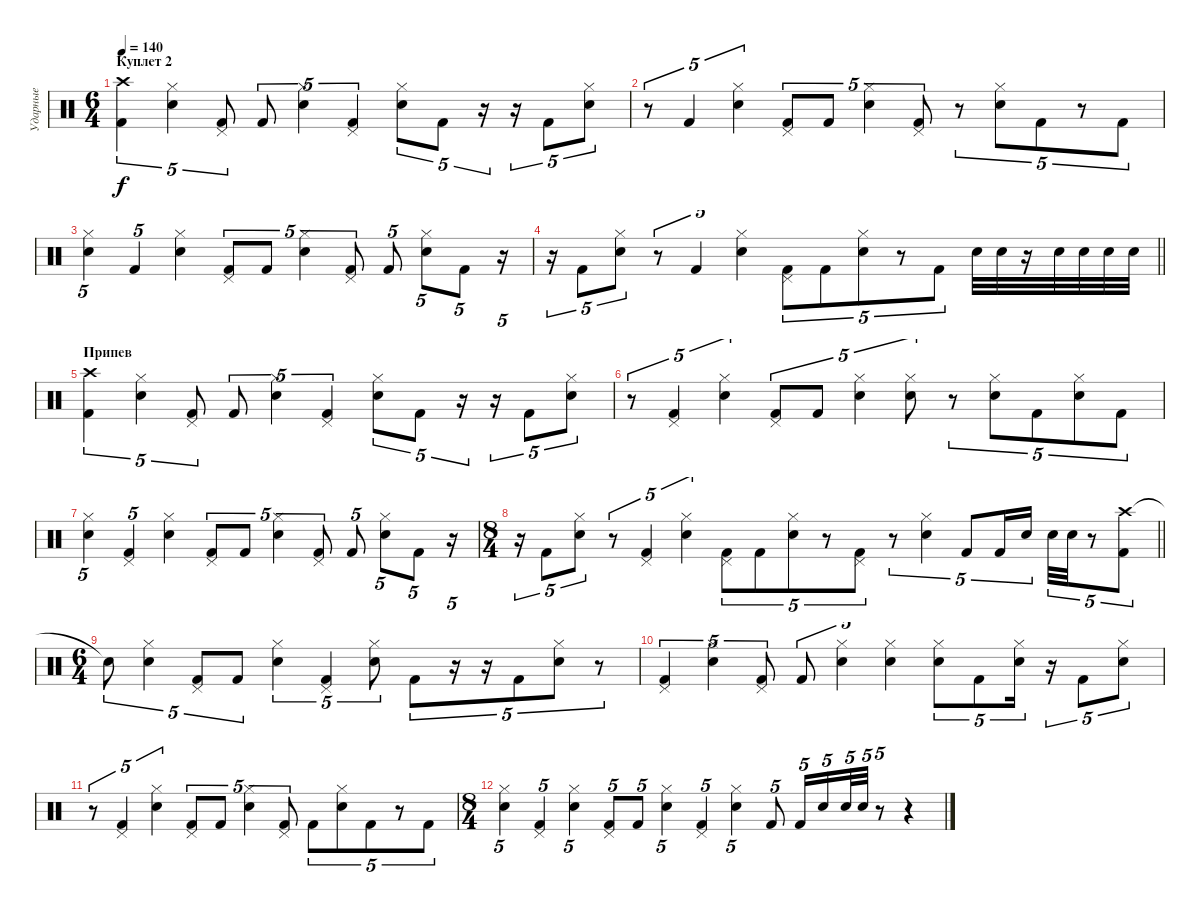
\track ("Ударные" "Ударные") {instrument percussion}
\staff {score}
\articulation defaults
\ts (6 4)
\section ("" "Куплет 2")
\tempo 140
\clef neutral
\ks c
("Crash high (hit)" "Kick (hit) 2").4{tu (5 4) dy f} ("Hi-Hat (closed)" "Snare (hit) 2").4{tu (5 4)} ("Pedal Hi-Hat (hit)" "Kick (hit) 2").8{tu (5 4)} "Kick (hit) 2".8{tu (5 4)} ("Hi-Hat (closed)" "Snare (hit) 2").4{tu (5 4)} ("Pedal Hi-Hat (hit)" "Kick (hit) 2").4{tu (5 4)} ("Hi-Hat (closed)" "Snare (hit) 2").8{tu (5 4)} "Kick (hit) 2".8{tu (5 4)} r.16{tu (5 4)} r.16{tu (5 4)} "Kick (hit) 2".8{tu (5 4)} ("Hi-Hat (closed)" "Snare (hit) 2").8{tu (5 4)} |
r.8{tu (5 4)} "Kick (hit) 2".4{tu (5 4)} ("Hi-Hat (closed)" "Snare (hit) 2").4{tu (5 4)} ("Pedal Hi-Hat (hit)" "Kick (hit) 2").8{tu (5 4)} "Kick (hit) 2".8{tu (5 4)} ("Hi-Hat (closed)" "Snare (hit) 2").4{tu (5 4)} ("Pedal Hi-Hat (hit)" "Kick (hit) 2").8{tu (5 4)} r.8{tu (5 4)} ("Hi-Hat (closed)" "Snare (hit) 2").8{tu (5 4)} "Kick (hit) 2".8{tu (5 4)} r.8{tu (5 4)} "Kick (hit) 2".8{tu (5 4)} |
("Hi-Hat (closed)" "Snare (hit) 2").4{tu (5 4)} "Kick (hit) 2".4{tu (5 4)} ("Hi-Hat (closed)" "Snare (hit) 2").4 ("Pedal Hi-Hat (hit)" "Kick (hit) 2").8{tu (5 4)} "Kick (hit) 2".8{tu (5 4)} ("Hi-Hat (closed)" "Snare (hit) 2").4{tu (5 4)} ("Pedal Hi-Hat (hit)" "Kick (hit) 2").8{tu (5 4)} "Kick (hit) 2".8{tu (5 4)} ("Hi-Hat (closed)" "Snare (hit) 2").8{tu (5 4)} "Kick (hit) 2".8{tu (5 4)} r.16{tu (5 4)} |
\barLineRight lightlight
r.16{tu (5 4)} "Kick (hit) 2".8{tu (5 4)} ("Hi-Hat (closed)" "Snare (hit) 2").8{tu (5 4)} r.8{tu (5 4)} "Kick (hit) 2".4{tu (5 4)} ("Hi-Hat (closed)" "Snare (hit) 2").4{tu (5 4)} ("Pedal Hi-Hat (hit)" "Kick (hit) 2").8{tu (5 4)} "Kick (hit) 2".8{tu (5 4)} ("Hi-Hat (closed)" "Snare (hit) 2").8{tu (5 4)} r.8{tu (5 4)} "Kick (hit) 2".8{tu (5 4)} "Snare (hit) 2".32 "Snare (hit) 2".32 r.16 "Snare (hit) 2".32 "Snare (hit) 2".32 "Snare (hit) 2".32 "Snare (hit) 2".32 |
\section ("" "Припев")
("Crash high (hit)" "Kick (hit) 2").4{tu (5 4)} ("Hi-Hat (closed)" "Snare (hit) 2").4{tu (5 4)} ("Pedal Hi-Hat (hit)" "Kick (hit) 2").8{tu (5 4)} "Kick (hit) 2".8{tu (5 4)} ("Hi-Hat (closed)" "Snare (hit) 2").4{tu (5 4)} ("Pedal Hi-Hat (hit)" "Kick (hit) 2").4{tu (5 4)} ("Hi-Hat (closed)" "Snare (hit) 2").8{tu (5 4)} "Kick (hit) 2".8{tu (5 4)} r.16{tu (5 4)} r.16{tu (5 4)} "Kick (hit) 2".8{tu (5 4)} ("Hi-Hat (closed)" "Snare (hit) 2").8{tu (5 4)} |
r.8{tu (5 4)} ("Pedal Hi-Hat (hit)" "Kick (hit) 2").4{tu (5 4)} ("Hi-Hat (closed)" "Snare (hit) 2").4{tu (5 4)} ("Pedal Hi-Hat (hit)" "Kick (hit) 2").8{tu (5 4)} "Kick (hit) 2".8{tu (5 4)} ("Hi-Hat (closed)" "Snare (hit) 2").4{tu (5 4)} ("Hi-Hat (closed)" "Snare (hit) 2").8{tu (5 4)} r.8{tu (5 4)} ("Hi-Hat (closed)" "Snare (hit) 2").8{tu (5 4)} "Kick (hit) 2".8{tu (5 4)} ("Hi-Hat (closed)" "Snare (hit) 2").8{tu (5 4)} "Kick (hit) 2".8{tu (5 4)} |
("Hi-Hat (closed)" "Snare (hit) 2").4{tu (5 4)} ("Pedal Hi-Hat (hit)" "Kick (hit) 2").4{tu (5 4)} ("Hi-Hat (closed)" "Snare (hit) 2").4 ("Pedal Hi-Hat (hit)" "Kick (hit) 2").8{tu (5 4)} "Kick (hit) 2".8{tu (5 4)} ("Hi-Hat (closed)" "Snare (hit) 2").4{tu (5 4)} ("Pedal Hi-Hat (hit)" "Kick (hit) 2").8{tu (5 4)} "Kick (hit) 2".8{tu (5 4)} ("Hi-Hat (closed)" "Snare (hit) 2").8{tu (5 4)} "Kick (hit) 2".8{tu (5 4)} r.16{tu (5 4)} |
\ts (8 4)
\barLineRight lightlight
r.16{tu (5 4)} "Kick (hit) 2".8{tu (5 4)} ("Hi-Hat (closed)" "Snare (hit) 2").8{tu (5 4)} r.8{tu (5 4)} ("Pedal Hi-Hat (hit)" "Kick (hit) 2").4{tu (5 4)} ("Hi-Hat (closed)" "Snare (hit) 2").4{tu (5 4)} ("Pedal Hi-Hat (hit)" "Kick (hit) 2").8{tu (5 4)} "Kick (hit) 2".8{tu (5 4)} ("Hi-Hat (closed)" "Snare (hit) 2").8{tu (5 4)} r.8{tu (5 4)} ("Pedal Hi-Hat (hit)" "Kick (hit) 2").8{tu (5 4)} r.8{tu (5 4)} ("Hi-Hat (closed)" "Snare (hit) 2").4{tu (5 4)} "Kick (hit) 2".8{tu (5 4)} "Kick (hit) 2".16{tu (5 4)} "Snare (hit) 2".16{tu (5 4)} "Snare (hit) 2".32{tu (5 4)} "Snare (hit) 2".32{tu (5 4)} r.8{tu (5 4)} ("Crash high (hit)" "Kick (hit) 2").8{tu (5 4)} |
\ts (6 4)
"Snare (hit)"{t}.8{tu (5 4)} ("Hi-Hat (closed)" "Snare (hit) 2").4{tu (5 4)} ("Pedal Hi-Hat (hit)" "Kick (hit) 2").8{tu (5 4)} "Kick (hit) 2".8{tu (5 4)} ("Hi-Hat (closed)" "Snare (hit) 2").4{tu (5 4)} ("Pedal Hi-Hat (hit)" "Kick (hit) 2").4{tu (5 4)} ("Hi-Hat (closed)" "Snare (hit) 2").8{tu (5 4)} "Kick (hit) 2".8{tu (5 4)} r.16{tu (5 4)} r.16{tu (5 4)} "Kick (hit) 2".8{tu (5 4)} ("Hi-Hat (closed)" "Snare (hit) 2").8{tu (5 4)} r.8{tu (5 4)} |
("Pedal Hi-Hat (hit)" "Kick (hit) 2").4{tu (5 4)} ("Hi-Hat (closed)" "Snare (hit) 2").4{tu (5 4)} ("Pedal Hi-Hat (hit)" "Kick (hit) 2").8{tu (5 4)} "Kick (hit) 2".8{tu (5 4)} ("Hi-Hat (closed)" "Snare (hit) 2").4{tu (5 4)} ("Hi-Hat (closed)" "Snare (hit) 2").4{tu (5 4)} ("Hi-Hat (closed)" "Snare (hit) 2").8{tu (5 4)} "Kick (hit) 2".8{tu (5 4)} ("Hi-Hat (closed)" "Snare (hit) 2").16{tu (5 4)} r.16{tu (5 4)} "Kick (hit) 2".8{tu (5 4)} ("Hi-Hat (closed)" "Snare (hit) 2").8{tu (5 4)} |
r.8{tu (5 4)} ("Pedal Hi-Hat (hit)" "Kick (hit) 2").4{tu (5 4)} ("Hi-Hat (closed)" "Snare (hit) 2").4{tu (5 4)} ("Pedal Hi-Hat (hit)" "Kick (hit) 2").8{tu (5 4)} "Kick (hit) 2".8{tu (5 4)} ("Hi-Hat (closed)" "Snare (hit) 2").4{tu (5 4)} ("Pedal Hi-Hat (hit)" "Kick (hit) 2").8{tu (5 4)} "Kick (hit) 2".8{tu (5 4)} ("Hi-Hat (closed)" "Snare (hit) 2").8{tu (5 4)} "Kick (hit) 2".8{tu (5 4)} r.8{tu (5 4)} "Kick (hit) 2".8{tu (5 4)} |
\ts (8 4)
("Hi-Hat (closed)" "Snare (hit) 2").4{tu (5 4)} ("Pedal Hi-Hat (hit)" "Kick (hit) 2").4{tu (5 4)} ("Hi-Hat (closed)" "Snare (hit) 2").4{tu (5 4)} ("Pedal Hi-Hat (hit)" "Kick (hit) 2").8{tu (5 4)} "Kick (hit) 2".8{tu (5 4)} ("Hi-Hat (closed)" "Snare (hit) 2").4{tu (5 4)} ("Pedal Hi-Hat (hit)" "Kick (hit) 2").4{tu (5 4)} ("Hi-Hat (closed)" "Snare (hit) 2").4{tu (5 4)} "Kick (hit) 2".8{tu (5 4)} "Kick (hit) 2".16{tu (5 4)} "Snare (hit) 2".16{tu (5 4)} "Snare (hit) 2".32{tu (5 4)} "Snare (hit) 2".32{tu (5 4)} r.8{tu (5 4)} r.4
